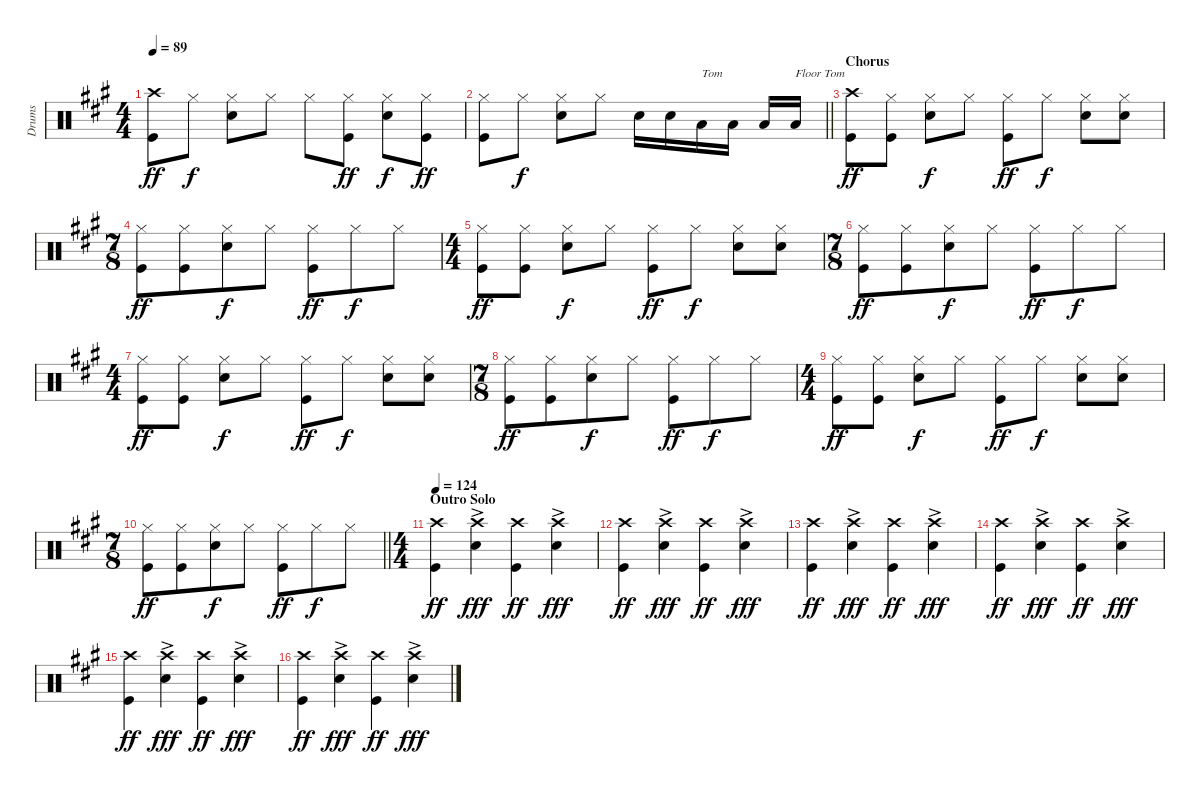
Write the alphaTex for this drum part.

\track ("Drums" "Drums") {instrument percussion}
\staff {score}
\articulation defaults
\ts (4 4)
\tempo 89
\clef neutral
\ks a
("Crash high (hit)" "Kick (hit)").8{dy ff} "Hi-Hat (closed)".8{dy f} ("Hi-Hat (closed)" "Snare (hit) 2").8 "Hi-Hat (closed)".8 "Hi-Hat (closed)".8 ("Hi-Hat (closed)" "Kick (hit)").8{dy ff} ("Hi-Hat (closed)" "Snare (hit) 2").8{dy f} ("Hi-Hat (closed)" "Kick (hit)").8{dy ff} |
\barLineRight lightlight
("Hi-Hat (closed)" "Kick (hit)").8 "Hi-Hat (closed)".8{dy f} ("Hi-Hat (closed)" "Snare (hit) 2").8 "Hi-Hat (closed)".8 "Snare (hit) 2".16 "Snare (hit) 2".16 "Low Tom (hit)".16{txt "Tom"} "Low Tom (hit)".16 "Low Floor Tom (hit)".16 "Low Floor Tom (hit)".16{txt "Floor Tom"} |
\section ("" "Chorus")
("Crash high (hit)" "Kick (hit)").8{dy ff} ("Hi-Hat (closed)" "Kick (hit)").8 ("Hi-Hat (closed)" "Snare (hit) 2").8{dy f} "Hi-Hat (closed)".8 ("Hi-Hat (closed)" "Kick (hit)").8{dy ff} "Hi-Hat (closed)".8{dy f} ("Hi-Hat (closed)" "Snare (hit) 2").8 ("Hi-Hat (closed)" "Snare (hit) 2").8 |
\ts (7 8)
("Hi-Hat (closed)" "Kick (hit)").8{dy ff} ("Hi-Hat (closed)" "Kick (hit)").8 ("Hi-Hat (closed)" "Snare (hit) 2").8{dy f} "Hi-Hat (closed)".8 ("Hi-Hat (closed)" "Kick (hit)").8{dy ff} "Hi-Hat (closed)".8{dy f} "Hi-Hat (closed)".8 |
\ts (4 4)
("Hi-Hat (closed)" "Kick (hit)").8{dy ff} ("Hi-Hat (closed)" "Kick (hit)").8 ("Hi-Hat (closed)" "Snare (hit) 2").8{dy f} "Hi-Hat (closed)".8 ("Hi-Hat (closed)" "Kick (hit)").8{dy ff} "Hi-Hat (closed)".8{dy f} ("Hi-Hat (closed)" "Snare (hit) 2").8 ("Hi-Hat (closed)" "Snare (hit) 2").8 |
\ts (7 8)
("Hi-Hat (closed)" "Kick (hit)").8{dy ff} ("Hi-Hat (closed)" "Kick (hit)").8 ("Hi-Hat (closed)" "Snare (hit) 2").8{dy f} "Hi-Hat (closed)".8 ("Hi-Hat (closed)" "Kick (hit)").8{dy ff} "Hi-Hat (closed)".8{dy f} "Hi-Hat (closed)".8 |
\ts (4 4)
("Hi-Hat (closed)" "Kick (hit)").8{dy ff} ("Hi-Hat (closed)" "Kick (hit)").8 ("Hi-Hat (closed)" "Snare (hit) 2").8{dy f} "Hi-Hat (closed)".8 ("Hi-Hat (closed)" "Kick (hit)").8{dy ff} "Hi-Hat (closed)".8{dy f} ("Hi-Hat (closed)" "Snare (hit) 2").8 ("Hi-Hat (closed)" "Snare (hit) 2").8 |
\ts (7 8)
("Hi-Hat (closed)" "Kick (hit)").8{dy ff} ("Hi-Hat (closed)" "Kick (hit)").8 ("Hi-Hat (closed)" "Snare (hit) 2").8{dy f} "Hi-Hat (closed)".8 ("Hi-Hat (closed)" "Kick (hit)").8{dy ff} "Hi-Hat (closed)".8{dy f} "Hi-Hat (closed)".8 |
\ts (4 4)
("Hi-Hat (closed)" "Kick (hit)").8{dy ff} ("Hi-Hat (closed)" "Kick (hit)").8 ("Hi-Hat (closed)" "Snare (hit) 2").8{dy f} "Hi-Hat (closed)".8 ("Hi-Hat (closed)" "Kick (hit)").8{dy ff} "Hi-Hat (closed)".8{dy f} ("Hi-Hat (closed)" "Snare (hit) 2").8 ("Hi-Hat (closed)" "Snare (hit) 2").8 |
\ts (7 8)
\barLineRight lightlight
("Hi-Hat (closed)" "Kick (hit)").8{dy ff} ("Hi-Hat (closed)" "Kick (hit)").8 ("Hi-Hat (closed)" "Snare (hit) 2").8{dy f} "Hi-Hat (closed)".8 ("Hi-Hat (closed)" "Kick (hit)").8{dy ff} "Hi-Hat (closed)".8{dy f} "Hi-Hat (closed)".8 |
\ts (4 4)
\section ("" "Outro Solo")
\tempo 124
("Crash high (hit)" "Kick (hit)").4{dy ff volume 12 balance 4} ("Crash high (hit)"{ac} "Snare (hit) 2").4{dy fff} ("Crash high (hit)" "Kick (hit)").4{dy ff} ("Crash high (hit)"{ac} "Snare (hit) 2").4{dy fff} |
("Crash high (hit)" "Kick (hit)").4{dy ff} ("Crash high (hit)"{ac} "Snare (hit) 2").4{dy fff} ("Crash high (hit)" "Kick (hit)").4{dy ff} ("Crash high (hit)"{ac} "Snare (hit) 2").4{dy fff} |
("Crash high (hit)" "Kick (hit)").4{dy ff} ("Crash high (hit)"{ac} "Snare (hit) 2").4{dy fff} ("Crash high (hit)" "Kick (hit)").4{dy ff} ("Crash high (hit)"{ac} "Snare (hit) 2").4{dy fff} |
("Crash high (hit)" "Kick (hit)").4{dy ff} ("Crash high (hit)"{ac} "Snare (hit) 2").4{dy fff} ("Crash high (hit)" "Kick (hit)").4{dy ff} ("Crash high (hit)"{ac} "Snare (hit) 2").4{dy fff} |
("Crash high (hit)" "Kick (hit)").4{dy ff} ("Crash high (hit)"{ac} "Snare (hit) 2").4{dy fff} ("Crash high (hit)" "Kick (hit)").4{dy ff} ("Crash high (hit)"{ac} "Snare (hit) 2").4{dy fff} |
("Crash high (hit)" "Kick (hit)").4{dy ff} ("Crash high (hit)"{ac} "Snare (hit) 2").4{dy fff} ("Crash high (hit)" "Kick (hit)").4{dy ff} ("Crash high (hit)"{ac} "Snare (hit) 2").4{dy fff}
